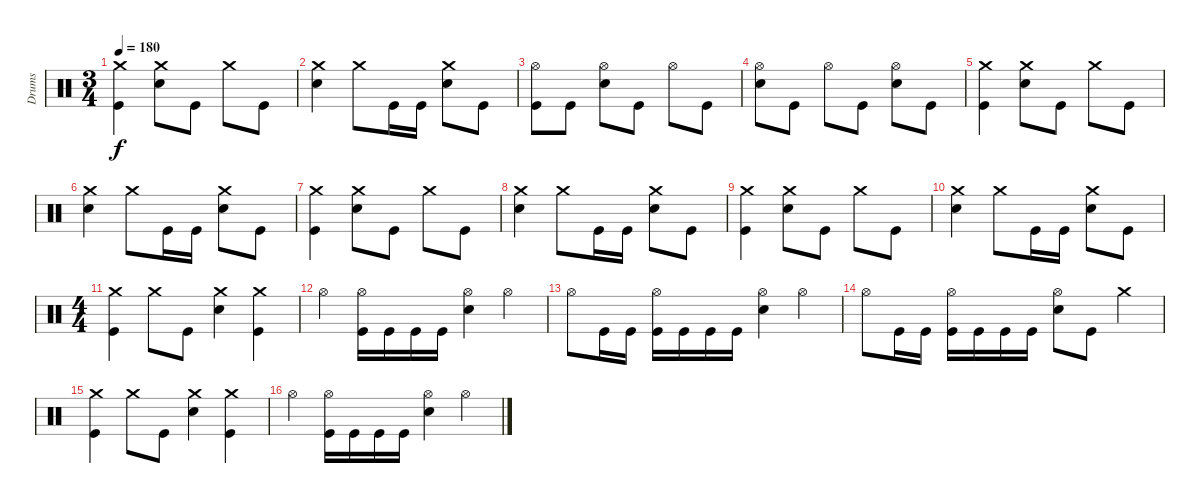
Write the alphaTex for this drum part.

\track ("Drums" "Drums") {instrument percussion}
\staff {score}
\articulation defaults
\ts (3 4)
\tempo 180
\clef neutral
\ks c
("Crash medium (hit)" "Kick (hit)").4{dy f} ("Crash medium (hit)" "Electric Snare (hit)").8 "Kick (hit)".8 "Crash medium (hit)".8 "Kick (hit)".8 |
("Crash medium (hit)" "Electric Snare (hit)").4 "Crash medium (hit)".8 "Kick (hit)".16 "Kick (hit)".16 ("Crash medium (hit)" "Electric Snare (hit)").8 "Kick (hit)".8 |
("Hi-Hat (open)" "Kick (hit)").8 "Kick (hit)".8 ("Hi-Hat (open)" "Electric Snare (hit)").8 "Kick (hit)".8 "Hi-Hat (open)".8 "Kick (hit)".8 |
("Hi-Hat (open)" "Electric Snare (hit)").8 "Kick (hit)".8 "Hi-Hat (open)".8 "Kick (hit)".8 ("Hi-Hat (open)" "Electric Snare (hit)").8 "Kick (hit)".8 |
("Crash medium (hit)" "Kick (hit)").4 ("Crash medium (hit)" "Electric Snare (hit)").8 "Kick (hit)".8 "Crash medium (hit)".8 "Kick (hit)".8 |
("Crash medium (hit)" "Electric Snare (hit)").4 "Crash medium (hit)".8 "Kick (hit)".16 "Kick (hit)".16 ("Crash medium (hit)" "Electric Snare (hit)").8 "Kick (hit)".8 |
("Crash medium (hit)" "Kick (hit)").4 ("Crash medium (hit)" "Electric Snare (hit)").8 "Kick (hit)".8 "Crash medium (hit)".8 "Kick (hit)".8 |
("Crash medium (hit)" "Electric Snare (hit)").4 "Crash medium (hit)".8 "Kick (hit)".16 "Kick (hit)".16 ("Crash medium (hit)" "Electric Snare (hit)").8 "Kick (hit)".8 |
("Crash medium (hit)" "Kick (hit)").4 ("Crash medium (hit)" "Electric Snare (hit)").8 "Kick (hit)".8 "Crash medium (hit)".8 "Kick (hit)".8 |
("Crash medium (hit)" "Electric Snare (hit)").4 "Crash medium (hit)".8 "Kick (hit)".16 "Kick (hit)".16 ("Crash medium (hit)" "Electric Snare (hit)").8 "Kick (hit)".8 |
\ts (4 4)
("Crash medium (hit)" "Kick (hit)").4 "Crash medium (hit)".8 "Kick (hit)".8 ("Crash medium (hit)" "Electric Snare (hit)").4 ("Crash medium (hit)" "Kick (hit)").4 |
"Hi-Hat (open)".4 ("Hi-Hat (open)" "Kick (hit)").16 "Kick (hit)".16 "Kick (hit)".16 "Kick (hit)".16 ("Hi-Hat (open)" "Electric Snare (hit)").4 "Hi-Hat (open)".4 |
"Hi-Hat (open)".8 "Kick (hit)".16 "Kick (hit)".16 ("Hi-Hat (open)" "Kick (hit)").16 "Kick (hit)".16 "Kick (hit)".16 "Kick (hit)".16 ("Hi-Hat (open)" "Electric Snare (hit)").4 "Hi-Hat (open)".4 |
"Hi-Hat (open)".8 "Kick (hit)".16 "Kick (hit)".16 ("Hi-Hat (open)" "Kick (hit)").16 "Kick (hit)".16 "Kick (hit)".16 "Kick (hit)".16 ("Hi-Hat (open)" "Electric Snare (hit)").8 "Kick (hit)".8 "Crash medium (hit)".4 |
("Crash medium (hit)" "Kick (hit)").4 "Crash medium (hit)".8 "Kick (hit)".8 ("Crash medium (hit)" "Electric Snare (hit)").4 ("Crash medium (hit)" "Kick (hit)").4 |
"Hi-Hat (open)".4 ("Hi-Hat (open)" "Kick (hit)").16 "Kick (hit)".16 "Kick (hit)".16 "Kick (hit)".16 ("Hi-Hat (open)" "Electric Snare (hit)").4 "Hi-Hat (open)".4
